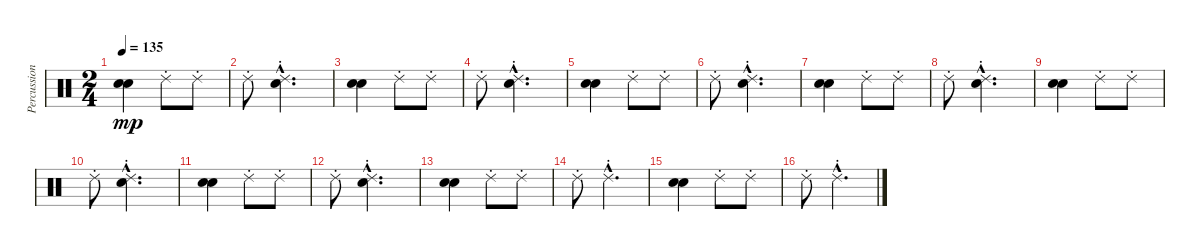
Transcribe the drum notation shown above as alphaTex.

\track ("Percussions" "Percussion") {instrument percussion}
\staff {score}
\articulation defaults
\ts (2 4)
\tempo 135
\clef neutral
\ks c
("Electric Snare (hit)" "Snare (hit) 2").4{dy mp} "Ride (choke) 2".8 "Ride (choke) 2".8 |
"Ride (choke) 2".8 ("Snare (hit) 2"{hac} "Ride (choke) 2"{hac}).4{d} |
("Electric Snare (hit)" "Snare (hit) 2").4 "Ride (choke) 2".8 "Ride (choke) 2".8 |
"Ride (choke) 2".8 ("Snare (hit) 2"{hac} "Ride (choke) 2"{hac}).4{d} |
("Electric Snare (hit)" "Snare (hit) 2").4 "Ride (choke) 2".8 "Ride (choke) 2".8 |
"Ride (choke) 2".8 ("Snare (hit) 2"{hac} "Ride (choke) 2"{hac}).4{d} |
("Electric Snare (hit)" "Snare (hit) 2").4 "Ride (choke) 2".8 "Ride (choke) 2".8 |
"Ride (choke) 2".8 ("Snare (hit) 2"{hac} "Ride (choke) 2"{hac}).4{d} |
("Electric Snare (hit)" "Snare (hit) 2").4 "Ride (choke) 2".8 "Ride (choke) 2".8 |
"Ride (choke) 2".8 ("Snare (hit) 2"{hac} "Ride (choke) 2"{hac}).4{d} |
("Electric Snare (hit)" "Snare (hit) 2").4 "Ride (choke) 2".8 "Ride (choke) 2".8 |
"Ride (choke) 2".8 ("Snare (hit) 2"{hac} "Ride (choke) 2"{hac}).4{d} |
("Electric Snare (hit)" "Snare (hit) 2").4 "Ride (choke) 2".8 "Ride (choke) 2".8 |
"Ride (choke) 2".8 "Ride (choke) 2"{hac}.4{d} |
("Snare (hit) 2" "Electric Snare (hit)").4 "Ride (choke) 2".8 "Ride (choke) 2".8 |
"Ride (choke) 2".8 "Ride (choke) 2"{hac}.4{d}
